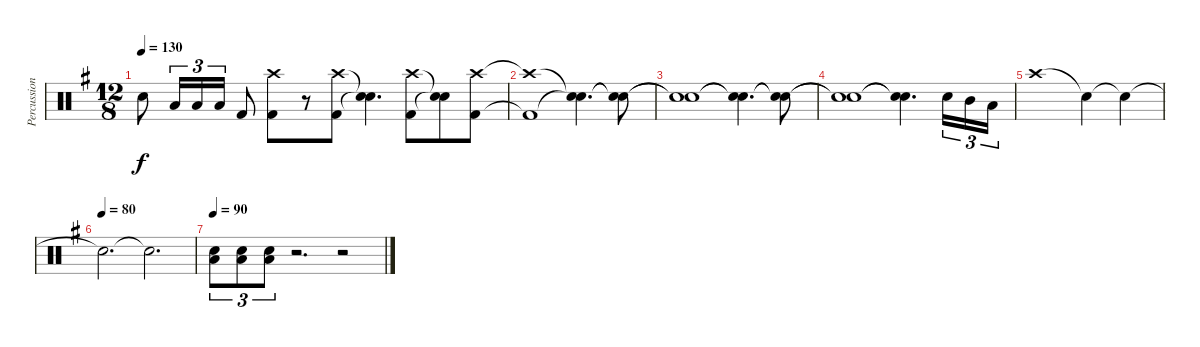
\track ("Percussion" "Percussion") {instrument percussion}
\staff {score}
\articulation defaults
\ts (12 8)
\tempo 130
\clef neutral
\ks g "Snare (hit) 2".8{dy f} "Low Tom (hit)".16{tu (3 2)} "Low Tom (hit)".16{tu (3 2)} "Low Tom (hit)".16{tu (3 2)} "Kick (hit) 2".8
("Crash high (hit)" "Kick (hit) 2").8 r.8 ("Crash high (hit)" "Kick (hit) 2").8 ("Snare (hit)"{t} "Snare (hit)"{t}).4{d} ("Crash high (hit)" "Kick (hit) 2").8 ("Snare (hit)"{t} "Snare (hit)"{t}).8 ("Crash high (hit)" "Kick (hit) 2").8 |
("Crash high (hit)"{t} "Kick (hit) 2"{t}).1 ("Snare (hit)"{t} "Snare (hit)"{t}).4{d} ("Snare (hit)"{t} "Snare (hit)"{t}).8 |
("Snare (hit)"{t} "Snare (hit)"{t}).1 ("Snare (hit)"{t} "Snare (hit)"{t}).4{d} ("Snare (hit)"{t} "Snare (hit)"{t}).8 |
("Snare (hit)"{t} "Snare (hit)"{t}).1 ("Snare (hit)"{t} "Snare (hit)"{t}).4{d} "Snare (hit) 2".16{tu (3 2)} "Mid Tom (hit)".16{tu (3 2)} "Low Tom (hit)".16{tu (3 2)} |
"Crash high (hit)".1 "Snare (hit)"{t}.4 "Snare (hit)"{t}.4 |
\tempo (80)
"Snare (hit)"{t}.2{d} "Snare (hit)"{t}.2{d} |
\tempo 90
("Low Tom (hit)" "Snare (hit) 2").8{tu (3 2)} ("Low Tom (hit)" "Snare (hit) 2").8{tu (3 2)} ("Low Tom (hit)" "Snare (hit) 2").8{tu (3 2)} r.2{d} r.2
